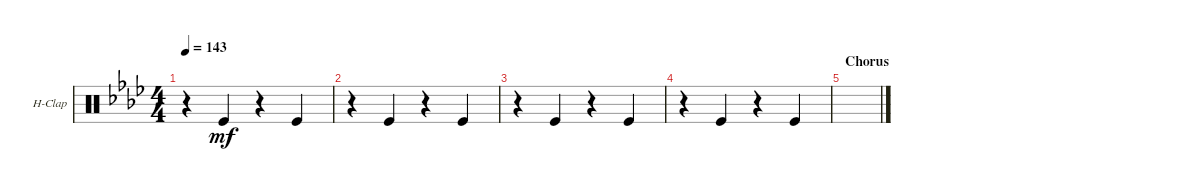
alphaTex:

\defaultSystemsLayout 4
\bracketExtendMode groupsimilarinstruments
\firstSystemTrackNameOrientation horizontal
\otherSystemsTrackNameOrientation horizontal
\track ("Hand Clap" "H-Clap") {instrument percussion}
\staff {score}
\articulation defaults
\ts (4 4)
\tempo 143
\clef neutral
\ks fminor
r.4{dy mf} "Kick (hit)".4 r.4 "Kick (hit)".4 |
r.4 "Kick (hit)".4 r.4 "Kick (hit)".4 |
r.4 "Kick (hit)".4 r.4 "Kick (hit)".4 |
r.4 "Kick (hit)".4 r.4 "Kick (hit)".4 |
\section ("" "Chorus")
